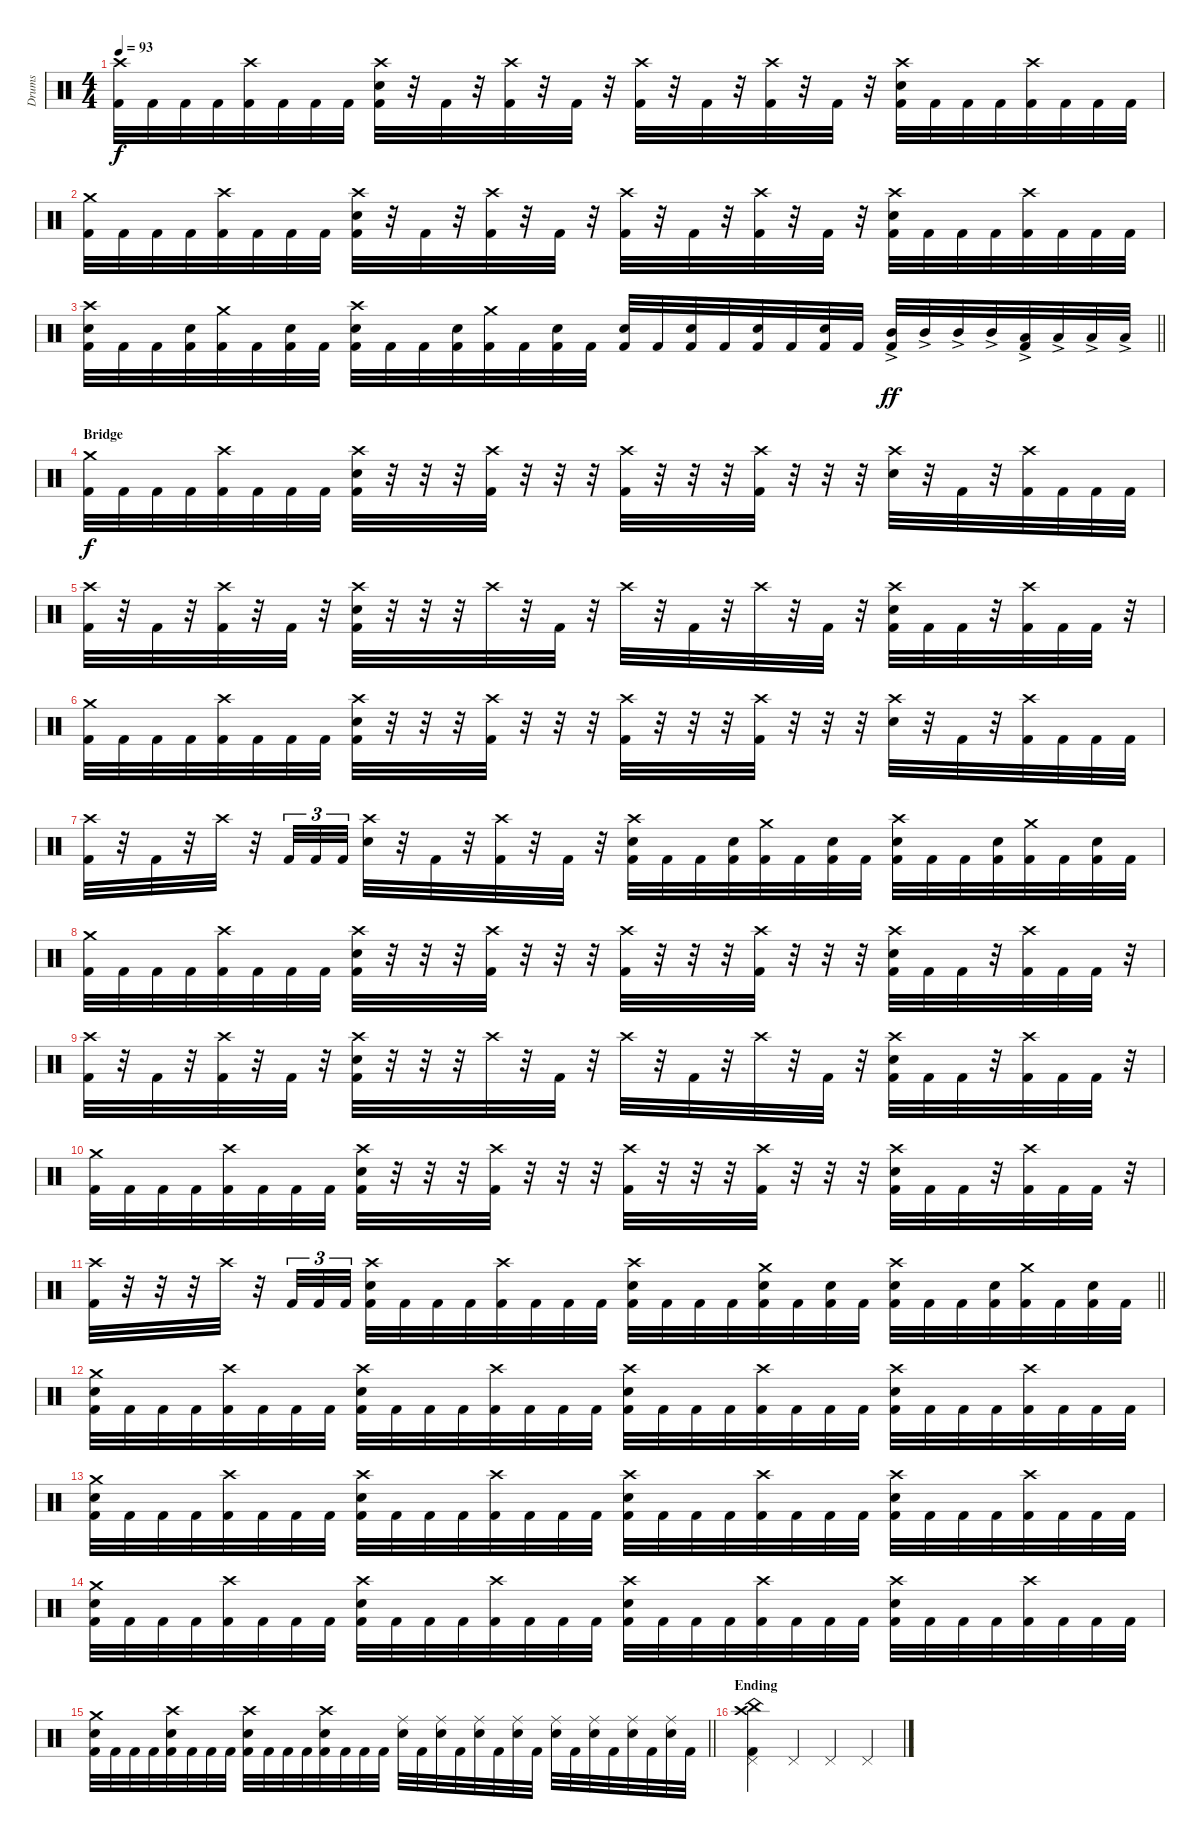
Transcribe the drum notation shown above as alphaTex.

\track ("Drums" "Drums") {instrument percussion}
\staff {score}
\articulation defaults
\ts (4 4)
\tempo 93
\clef neutral
\ks c
("Crash high (hit)" "Kick (hit) 2").32{dy f} "Kick (hit) 2".32 "Kick (hit) 2".32 "Kick (hit) 2".32 ("Crash high (hit)" "Kick (hit) 2").32 "Kick (hit) 2".32 "Kick (hit) 2".32 "Kick (hit) 2".32 ("Crash high (hit)" "Snare (hit) 2" "Kick (hit) 2").32 r.32 "Kick (hit) 2".32 r.32 ("Crash high (hit)" "Kick (hit) 2").32 r.32 "Kick (hit) 2".32 r.32 ("Crash high (hit)" "Kick (hit) 2").32 r.32 "Kick (hit) 2".32 r.32 ("Crash high (hit)" "Kick (hit) 2").32 r.32 "Kick (hit) 2".32 r.32 ("Crash high (hit)" "Snare (hit) 2" "Kick (hit) 2").32 "Kick (hit) 2".32 "Kick (hit) 2".32 "Kick (hit) 2".32 ("Crash high (hit)" "Kick (hit) 2").32 "Kick (hit) 2".32 "Kick (hit) 2".32 "Kick (hit) 2".32 |
("Crash medium (hit)" "Kick (hit) 2").32 "Kick (hit) 2".32 "Kick (hit) 2".32 "Kick (hit) 2".32 ("Crash high (hit)" "Kick (hit) 2").32 "Kick (hit) 2".32 "Kick (hit) 2".32 "Kick (hit) 2".32 ("Crash high (hit)" "Snare (hit) 2" "Kick (hit) 2").32 r.32 "Kick (hit) 2".32 r.32 ("Crash high (hit)" "Kick (hit) 2").32 r.32 "Kick (hit) 2".32 r.32 ("Crash high (hit)" "Kick (hit) 2").32 r.32 "Kick (hit) 2".32 r.32 ("Crash high (hit)" "Kick (hit) 2").32 r.32 "Kick (hit) 2".32 r.32 ("Crash high (hit)" "Snare (hit) 2" "Kick (hit) 2").32 "Kick (hit) 2".32 "Kick (hit) 2".32 "Kick (hit) 2".32 ("Crash high (hit)" "Kick (hit) 2").32 "Kick (hit) 2".32 "Kick (hit) 2".32 "Kick (hit) 2".32 |
\barLineRight lightlight
("Crash high (hit)" "Snare (hit) 2" "Kick (hit) 2").32 "Kick (hit) 2".32 "Kick (hit) 2".32 ("Snare (hit) 2" "Kick (hit) 2").32 ("Crash medium (hit)" "Kick (hit) 2").32 "Kick (hit) 2".32 ("Snare (hit) 2" "Kick (hit) 2").32 "Kick (hit) 2".32 ("Crash high (hit)" "Snare (hit) 2" "Kick (hit) 2").32 "Kick (hit) 2".32 "Kick (hit) 2".32 ("Snare (hit) 2" "Kick (hit) 2").32 ("Crash medium (hit)" "Kick (hit) 2").32 "Kick (hit) 2".32 ("Snare (hit) 2" "Kick (hit) 2").32 "Kick (hit) 2".32 ("Snare (hit) 2" "Kick (hit) 2").32 "Kick (hit) 2".32 ("Snare (hit) 2" "Kick (hit) 2").32 "Kick (hit) 2".32 ("Snare (hit) 2" "Kick (hit) 2").32 "Kick (hit) 2".32 ("Snare (hit) 2" "Kick (hit) 2").32 "Kick (hit) 2".32 ("Mid Tom (hit)"{ac} "Kick (hit) 2").32{dy ff} "Mid Tom (hit)"{ac}.32 "Mid Tom (hit)"{ac}.32 "Mid Tom (hit)"{ac}.32 ("Low Tom (hit)"{ac} "Kick (hit) 2").32 "Low Tom (hit)"{ac}.32 "Low Tom (hit)"{ac}.32 "Low Tom (hit)"{ac}.32 |
\section ("" "Bridge")
("Crash medium (hit)" "Kick (hit) 2").32{dy f} "Kick (hit) 2".32 "Kick (hit) 2".32 "Kick (hit) 2".32 ("Crash high (hit)" "Kick (hit) 2").32 "Kick (hit) 2".32 "Kick (hit) 2".32 "Kick (hit) 2".32 ("Crash high (hit)" "Snare (hit) 2" "Kick (hit) 2").32 r.32 r.32 r.32 ("Crash high (hit)" "Kick (hit) 2").32 r.32 r.32 r.32 ("Crash high (hit)" "Kick (hit) 2").32 r.32 r.32 r.32 ("Crash high (hit)" "Kick (hit) 2").32 r.32 r.32 r.32 ("Crash high (hit)" "Snare (hit) 2").32 r.32 "Kick (hit) 2".32 r.32 ("Crash high (hit)" "Kick (hit) 2").32 "Kick (hit) 2".32 "Kick (hit) 2".32 "Kick (hit) 2".32 |
("Crash high (hit)" "Kick (hit) 2").32 r.32 "Kick (hit) 2".32 r.32 ("Crash high (hit)" "Kick (hit) 2").32 r.32 "Kick (hit) 2".32 r.32 ("Crash high (hit)" "Snare (hit) 2" "Kick (hit) 2").32 r.32 r.32 r.32 "Crash high (hit)".32 r.32 "Kick (hit) 2".32 r.32 "Crash high (hit)".32 r.32 "Kick (hit) 2".32 r.32 "Crash high (hit)".32 r.32 "Kick (hit) 2".32 r.32 ("Crash high (hit)" "Snare (hit) 2" "Kick (hit) 2").32 "Kick (hit) 2".32 "Kick (hit) 2".32 r.32 ("Crash high (hit)" "Kick (hit) 2").32 "Kick (hit) 2".32 "Kick (hit) 2".32 r.32 |
("Crash medium (hit)" "Kick (hit) 2").32 "Kick (hit) 2".32 "Kick (hit) 2".32 "Kick (hit) 2".32 ("Crash high (hit)" "Kick (hit) 2").32 "Kick (hit) 2".32 "Kick (hit) 2".32 "Kick (hit) 2".32 ("Crash high (hit)" "Snare (hit) 2" "Kick (hit) 2").32 r.32 r.32 r.32 ("Crash high (hit)" "Kick (hit) 2").32 r.32 r.32 r.32 ("Crash high (hit)" "Kick (hit) 2").32 r.32 r.32 r.32 ("Crash high (hit)" "Kick (hit) 2").32 r.32 r.32 r.32 ("Crash high (hit)" "Snare (hit) 2").32 r.32 "Kick (hit) 2".32 r.32 ("Crash high (hit)" "Kick (hit) 2").32 "Kick (hit) 2".32 "Kick (hit) 2".32 "Kick (hit) 2".32 |
("Crash high (hit)" "Kick (hit) 2").32 r.32 "Kick (hit) 2".32 r.32 "Crash high (hit)".32 r.32 "Kick (hit) 2".32{tu (3 2)} "Kick (hit) 2".32{tu (3 2)} "Kick (hit) 2".32{tu (3 2)} ("Crash high (hit)" "Snare (hit) 2").32 r.32 "Kick (hit) 2".32 r.32 ("Crash high (hit)" "Kick (hit) 2").32 r.32 "Kick (hit) 2".32 r.32 ("Crash high (hit)" "Snare (hit) 2" "Kick (hit) 2").32 "Kick (hit) 2".32 "Kick (hit) 2".32 ("Snare (hit) 2" "Kick (hit) 2").32 ("Crash medium (hit)" "Kick (hit) 2").32 "Kick (hit) 2".32 ("Snare (hit) 2" "Kick (hit) 2").32 "Kick (hit) 2".32 ("Crash high (hit)" "Snare (hit) 2" "Kick (hit) 2").32 "Kick (hit) 2".32 "Kick (hit) 2".32 ("Snare (hit) 2" "Kick (hit) 2").32 ("Crash medium (hit)" "Kick (hit) 2").32 "Kick (hit) 2".32 ("Snare (hit) 2" "Kick (hit) 2").32 "Kick (hit) 2".32 |
("Crash medium (hit)" "Kick (hit) 2").32 "Kick (hit) 2".32 "Kick (hit) 2".32 "Kick (hit) 2".32 ("Crash high (hit)" "Kick (hit) 2").32 "Kick (hit) 2".32 "Kick (hit) 2".32 "Kick (hit) 2".32 ("Crash high (hit)" "Snare (hit) 2" "Kick (hit) 2").32 r.32 r.32 r.32 ("Crash high (hit)" "Kick (hit) 2").32 r.32 r.32 r.32 ("Crash high (hit)" "Kick (hit) 2").32 r.32 r.32 r.32 ("Crash high (hit)" "Kick (hit) 2").32 r.32 r.32 r.32 ("Crash high (hit)" "Snare (hit) 2" "Kick (hit) 2").32 "Kick (hit) 2".32 "Kick (hit) 2".32 r.32 ("Crash high (hit)" "Kick (hit) 2").32 "Kick (hit) 2".32 "Kick (hit) 2".32 r.32 |
("Crash high (hit)" "Kick (hit) 2").32 r.32 "Kick (hit) 2".32 r.32 ("Crash high (hit)" "Kick (hit) 2").32 r.32 "Kick (hit) 2".32 r.32 ("Crash high (hit)" "Snare (hit) 2" "Kick (hit) 2").32 r.32 r.32 r.32 "Crash high (hit)".32 r.32 "Kick (hit) 2".32 r.32 "Crash high (hit)".32 r.32 "Kick (hit) 2".32 r.32 "Crash high (hit)".32 r.32 "Kick (hit) 2".32 r.32 ("Crash high (hit)" "Snare (hit) 2" "Kick (hit) 2").32 "Kick (hit) 2".32 "Kick (hit) 2".32 r.32 ("Crash high (hit)" "Kick (hit) 2").32 "Kick (hit) 2".32 "Kick (hit) 2".32 r.32 |
("Crash medium (hit)" "Kick (hit) 2").32 "Kick (hit) 2".32 "Kick (hit) 2".32 "Kick (hit) 2".32 ("Crash high (hit)" "Kick (hit) 2").32 "Kick (hit) 2".32 "Kick (hit) 2".32 "Kick (hit) 2".32 ("Crash high (hit)" "Snare (hit) 2" "Kick (hit) 2").32 r.32 r.32 r.32 ("Crash high (hit)" "Kick (hit) 2").32 r.32 r.32 r.32 ("Crash high (hit)" "Kick (hit) 2").32 r.32 r.32 r.32 ("Crash high (hit)" "Kick (hit) 2").32 r.32 r.32 r.32 ("Crash high (hit)" "Snare (hit) 2" "Kick (hit) 2").32 "Kick (hit) 2".32 "Kick (hit) 2".32 r.32 ("Crash high (hit)" "Kick (hit) 2").32 "Kick (hit) 2".32 "Kick (hit) 2".32 r.32 |
\barLineRight lightlight
("Crash high (hit)" "Kick (hit) 2").32 r.32 r.32 r.32 "Crash high (hit)".32 r.32 "Kick (hit) 2".32{tu (3 2)} "Kick (hit) 2".32{tu (3 2)} "Kick (hit) 2".32{tu (3 2)} ("Crash high (hit)" "Snare (hit) 2" "Kick (hit) 2").32 "Kick (hit) 2".32 "Kick (hit) 2".32 "Kick (hit) 2".32 ("Crash high (hit)" "Kick (hit) 2").32 "Kick (hit) 2".32 "Kick (hit) 2".32 "Kick (hit) 2".32 ("Crash high (hit)" "Snare (hit) 2" "Kick (hit) 2").32 "Kick (hit) 2".32 "Kick (hit) 2".32 "Kick (hit) 2".32 ("Crash medium (hit)" "Snare (hit) 2" "Kick (hit) 2").32 "Kick (hit) 2".32 ("Snare (hit) 2" "Kick (hit) 2").32 "Kick (hit) 2".32 ("Crash high (hit)" "Snare (hit) 2" "Kick (hit) 2").32 "Kick (hit) 2".32 "Kick (hit) 2".32 ("Snare (hit) 2" "Kick (hit) 2").32 ("Crash medium (hit)" "Kick (hit) 2").32 "Kick (hit) 2".32 ("Snare (hit) 2" "Kick (hit) 2").32 "Kick (hit) 2".32 |
("Crash medium (hit)" "Snare (hit) 2" "Kick (hit) 2").32 "Kick (hit) 2".32 "Kick (hit) 2".32 "Kick (hit) 2".32 ("Crash high (hit)" "Kick (hit) 2").32 "Kick (hit) 2".32 "Kick (hit) 2".32 "Kick (hit) 2".32 ("Crash high (hit)" "Snare (hit) 2" "Kick (hit) 2").32 "Kick (hit) 2".32 "Kick (hit) 2".32 "Kick (hit) 2".32 ("Crash high (hit)" "Kick (hit) 2").32 "Kick (hit) 2".32 "Kick (hit) 2".32 "Kick (hit) 2".32 ("Crash high (hit)" "Snare (hit) 2" "Kick (hit) 2").32 "Kick (hit) 2".32 "Kick (hit) 2".32 "Kick (hit) 2".32 ("Crash high (hit)" "Kick (hit) 2").32 "Kick (hit) 2".32 "Kick (hit) 2".32 "Kick (hit) 2".32 ("Crash high (hit)" "Snare (hit) 2" "Kick (hit) 2").32 "Kick (hit) 2".32 "Kick (hit) 2".32 "Kick (hit) 2".32 ("Crash high (hit)" "Kick (hit) 2").32 "Kick (hit) 2".32 "Kick (hit) 2".32 "Kick (hit) 2".32 |
("Crash medium (hit)" "Snare (hit) 2" "Kick (hit) 2").32 "Kick (hit) 2".32 "Kick (hit) 2".32 "Kick (hit) 2".32 ("Crash high (hit)" "Kick (hit) 2").32 "Kick (hit) 2".32 "Kick (hit) 2".32 "Kick (hit) 2".32 ("Crash high (hit)" "Snare (hit) 2" "Kick (hit) 2").32 "Kick (hit) 2".32 "Kick (hit) 2".32 "Kick (hit) 2".32 ("Crash high (hit)" "Kick (hit) 2").32 "Kick (hit) 2".32 "Kick (hit) 2".32 "Kick (hit) 2".32 ("Crash high (hit)" "Snare (hit) 2" "Kick (hit) 2").32 "Kick (hit) 2".32 "Kick (hit) 2".32 "Kick (hit) 2".32 ("Crash high (hit)" "Kick (hit) 2").32 "Kick (hit) 2".32 "Kick (hit) 2".32 "Kick (hit) 2".32 ("Crash high (hit)" "Snare (hit) 2" "Kick (hit) 2").32 "Kick (hit) 2".32 "Kick (hit) 2".32 "Kick (hit) 2".32 ("Crash high (hit)" "Kick (hit) 2").32 "Kick (hit) 2".32 "Kick (hit) 2".32 "Kick (hit) 2".32 |
("Crash medium (hit)" "Snare (hit) 2" "Kick (hit) 2").32 "Kick (hit) 2".32 "Kick (hit) 2".32 "Kick (hit) 2".32 ("Crash high (hit)" "Kick (hit) 2").32 "Kick (hit) 2".32 "Kick (hit) 2".32 "Kick (hit) 2".32 ("Crash high (hit)" "Snare (hit) 2" "Kick (hit) 2").32 "Kick (hit) 2".32 "Kick (hit) 2".32 "Kick (hit) 2".32 ("Crash high (hit)" "Kick (hit) 2").32 "Kick (hit) 2".32 "Kick (hit) 2".32 "Kick (hit) 2".32 ("Crash high (hit)" "Snare (hit) 2" "Kick (hit) 2").32 "Kick (hit) 2".32 "Kick (hit) 2".32 "Kick (hit) 2".32 ("Crash high (hit)" "Kick (hit) 2").32 "Kick (hit) 2".32 "Kick (hit) 2".32 "Kick (hit) 2".32 ("Crash high (hit)" "Snare (hit) 2" "Kick (hit) 2").32 "Kick (hit) 2".32 "Kick (hit) 2".32 "Kick (hit) 2".32 ("Crash high (hit)" "Kick (hit) 2").32 "Kick (hit) 2".32 "Kick (hit) 2".32 "Kick (hit) 2".32 |
\barLineRight lightlight
("Crash medium (hit)" "Snare (hit) 2" "Kick (hit) 2").32 "Kick (hit) 2".32 "Kick (hit) 2".32 "Kick (hit) 2".32 ("Crash high (hit)" "Snare (hit) 2" "Kick (hit) 2").32 "Kick (hit) 2".32 "Kick (hit) 2".32 "Kick (hit) 2".32 ("Crash high (hit)" "Snare (hit) 2" "Kick (hit) 2").32 "Kick (hit) 2".32 "Kick (hit) 2".32 "Kick (hit) 2".32 ("Crash high (hit)" "Snare (hit) 2" "Kick (hit) 2").32 "Kick (hit) 2".32 "Kick (hit) 2".32 "Kick (hit) 2".32 ("Ride (middle)" "Snare (hit) 2").32 "Kick (hit) 2".32 ("Ride (middle)" "Snare (hit) 2").32 "Kick (hit) 2".32 ("Ride (middle)" "Snare (hit) 2").32 "Kick (hit) 2".32 ("Ride (middle)" "Snare (hit) 2").32 "Kick (hit) 2".32 ("Ride (middle)" "Snare (hit) 2").32 "Kick (hit) 2".32 ("Ride (middle)" "Snare (hit) 2").32 "Kick (hit) 2".32 ("Ride (middle)" "Snare (hit) 2").32 "Kick (hit) 2".32 ("Ride (middle)" "Snare (hit) 2").32 "Kick (hit) 2".32 |
\section ("" "Ending")
("Crash high (hit)" "China (hit)" "Pedal Hi-Hat (hit)" "Kick (hit) 2").4 "Pedal Hi-Hat (hit)".4 "Pedal Hi-Hat (hit)".4 "Pedal Hi-Hat (hit)".4
